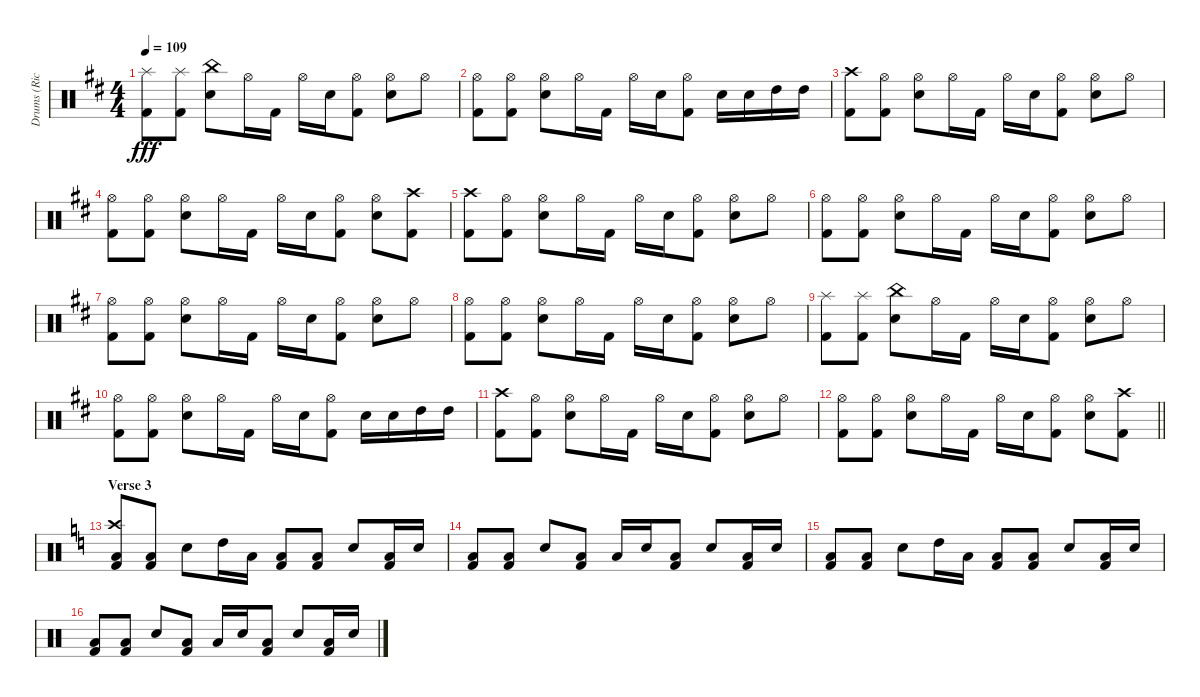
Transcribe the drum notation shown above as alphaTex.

\track ("Drums (Rick McMurray)" "Drums (Ric") {instrument percussion}
\staff {score}
\articulation defaults
\ts (4 4)
\tempo 109
\clef neutral
\ks d
("Splash (hit)" "Kick (hit) 2").8{dy fff} ("Splash (hit)" "Kick (hit) 2").8 ("China (hit)" "Snare (hit) 2").8 "Hi-Hat (open)".16 "Kick (hit) 2".16 "Hi-Hat (open)".16 "Snare (hit) 2".16 ("Hi-Hat (open)" "Kick (hit) 2").8 ("Hi-Hat (open)" "Snare (hit) 2").8 "Hi-Hat (open)".8 |
("Hi-Hat (open)" "Kick (hit) 2").8 ("Hi-Hat (open)" "Kick (hit) 2").8 ("Hi-Hat (open)" "Snare (hit) 2").8 "Hi-Hat (open)".16 "Kick (hit) 2".16 "Hi-Hat (open)".16 "Snare (hit) 2".16 ("Hi-Hat (open)" "Kick (hit) 2").8 "Snare (hit) 2".16 "Snare (hit) 2".16 "High Tom (hit)".16 "High Tom (hit)".16 |
("Crash high (hit)" "Kick (hit) 2").8 ("Hi-Hat (open)" "Kick (hit) 2").8 ("Hi-Hat (open)" "Snare (hit) 2").8 "Hi-Hat (open)".16 "Kick (hit) 2".16 "Hi-Hat (open)".16 "Snare (hit) 2".16 ("Hi-Hat (open)" "Kick (hit) 2").8 ("Hi-Hat (open)" "Snare (hit) 2").8 "Hi-Hat (open)".8 |
("Hi-Hat (open)" "Kick (hit) 2").8 ("Hi-Hat (open)" "Kick (hit) 2").8 ("Hi-Hat (open)" "Snare (hit) 2").8 "Hi-Hat (open)".16 "Kick (hit) 2".16 "Hi-Hat (open)".16 "Snare (hit) 2".16 ("Hi-Hat (open)" "Kick (hit) 2").8 ("Hi-Hat (open)" "Snare (hit) 2").8 ("Crash high (hit)" "Kick (hit) 2").8 |
("Crash high (hit)" "Kick (hit) 2").8 ("Hi-Hat (open)" "Kick (hit) 2").8 ("Hi-Hat (open)" "Snare (hit) 2").8 "Hi-Hat (open)".16 "Kick (hit) 2".16 "Hi-Hat (open)".16 "Snare (hit) 2".16 ("Hi-Hat (open)" "Kick (hit) 2").8 ("Hi-Hat (open)" "Snare (hit) 2").8 "Hi-Hat (open)".8 |
("Hi-Hat (open)" "Kick (hit) 2").8 ("Hi-Hat (open)" "Kick (hit) 2").8 ("Hi-Hat (open)" "Snare (hit) 2").8 "Hi-Hat (open)".16 "Kick (hit) 2".16 "Hi-Hat (open)".16 "Snare (hit) 2".16 ("Hi-Hat (open)" "Kick (hit) 2").8 ("Hi-Hat (open)" "Snare (hit) 2").8 "Hi-Hat (open)".8 |
("Hi-Hat (open)" "Kick (hit) 2").8 ("Hi-Hat (open)" "Kick (hit) 2").8 ("Hi-Hat (open)" "Snare (hit) 2").8 "Hi-Hat (open)".16 "Kick (hit) 2".16 "Hi-Hat (open)".16 "Snare (hit) 2".16 ("Hi-Hat (open)" "Kick (hit) 2").8 ("Hi-Hat (open)" "Snare (hit) 2").8 "Hi-Hat (open)".8 |
("Hi-Hat (open)" "Kick (hit) 2").8 ("Hi-Hat (open)" "Kick (hit) 2").8 ("Hi-Hat (open)" "Snare (hit) 2").8 "Hi-Hat (open)".16 "Kick (hit) 2".16 "Hi-Hat (open)".16 "Snare (hit) 2".16 ("Hi-Hat (open)" "Kick (hit) 2").8 ("Hi-Hat (open)" "Snare (hit) 2").8 "Hi-Hat (open)".8 |
("Splash (hit)" "Kick (hit) 2").8 ("Splash (hit)" "Kick (hit) 2").8 ("China (hit)" "Snare (hit) 2").8 "Hi-Hat (open)".16 "Kick (hit) 2".16 "Hi-Hat (open)".16 "Snare (hit) 2".16 ("Hi-Hat (open)" "Kick (hit) 2").8 ("Hi-Hat (open)" "Snare (hit) 2").8 "Hi-Hat (open)".8 |
("Hi-Hat (open)" "Kick (hit) 2").8 ("Hi-Hat (open)" "Kick (hit) 2").8 ("Hi-Hat (open)" "Snare (hit) 2").8 "Hi-Hat (open)".16 "Kick (hit) 2".16 "Hi-Hat (open)".16 "Snare (hit) 2".16 ("Hi-Hat (open)" "Kick (hit) 2").8 "Snare (hit) 2".16 "Snare (hit) 2".16 "High Tom (hit)".16 "High Tom (hit)".16 |
("Crash high (hit)" "Kick (hit) 2").8 ("Hi-Hat (open)" "Kick (hit) 2").8 ("Hi-Hat (open)" "Snare (hit) 2").8 "Hi-Hat (open)".16 "Kick (hit) 2".16 "Hi-Hat (open)".16 "Snare (hit) 2".16 ("Hi-Hat (open)" "Kick (hit) 2").8 ("Hi-Hat (open)" "Snare (hit) 2").8 "Hi-Hat (open)".8 |
\barLineRight lightlight
("Hi-Hat (open)" "Kick (hit) 2").8 ("Hi-Hat (open)" "Kick (hit) 2").8 ("Hi-Hat (open)" "Snare (hit) 2").8 "Hi-Hat (open)".16 "Kick (hit) 2".16 "Hi-Hat (open)".16 "Snare (hit) 2".16 ("Hi-Hat (open)" "Kick (hit) 2").8 ("Hi-Hat (open)" "Snare (hit) 2").8 ("Crash high (hit)" "Kick (hit) 2").8 |
\section ("" "Verse 3")
\ks c
("Crash high (hit)" "Low Floor Tom (hit)" "Kick (hit) 2").8 ("Low Floor Tom (hit)" "Kick (hit) 2").8 "Snare (hit) 2".8 "High Tom (hit)".16 "Low Tom (hit)".16 ("Low Floor Tom (hit)" "Kick (hit) 2").8 ("Low Floor Tom (hit)" "Kick (hit) 2").8 "Snare (hit) 2".8 ("Low Floor Tom (hit)" "Kick (hit) 2").16 "Snare (hit) 2".16 |
("Low Floor Tom (hit)" "Kick (hit) 2").8 ("Low Floor Tom (hit)" "Kick (hit) 2").8 "Snare (hit) 2".8 ("Low Floor Tom (hit)" "Kick (hit) 2").8 "Low Floor Tom (hit)".16 "Snare (hit) 2".16 ("Low Floor Tom (hit)" "Kick (hit) 2").8 "Snare (hit) 2".8 ("Kick (hit) 2" "Low Floor Tom (hit)").16 "Snare (hit) 2".16 |
("Low Floor Tom (hit)" "Kick (hit) 2").8 ("Low Floor Tom (hit)" "Kick (hit) 2").8 "Snare (hit) 2".8 "High Tom (hit)".16 "Low Tom (hit)".16 ("Low Floor Tom (hit)" "Kick (hit) 2").8 ("Low Floor Tom (hit)" "Kick (hit) 2").8 "Snare (hit) 2".8 ("Low Floor Tom (hit)" "Kick (hit) 2").16 "Snare (hit) 2".16 |
("Low Floor Tom (hit)" "Kick (hit) 2").8 ("Low Floor Tom (hit)" "Kick (hit) 2").8 "Snare (hit) 2".8 ("Low Floor Tom (hit)" "Kick (hit) 2").8 "Low Floor Tom (hit)".16 "Snare (hit) 2".16 ("Low Floor Tom (hit)" "Kick (hit) 2").8 "Snare (hit) 2".8 ("Kick (hit) 2" "Low Floor Tom (hit)").16 "Snare (hit) 2".16
